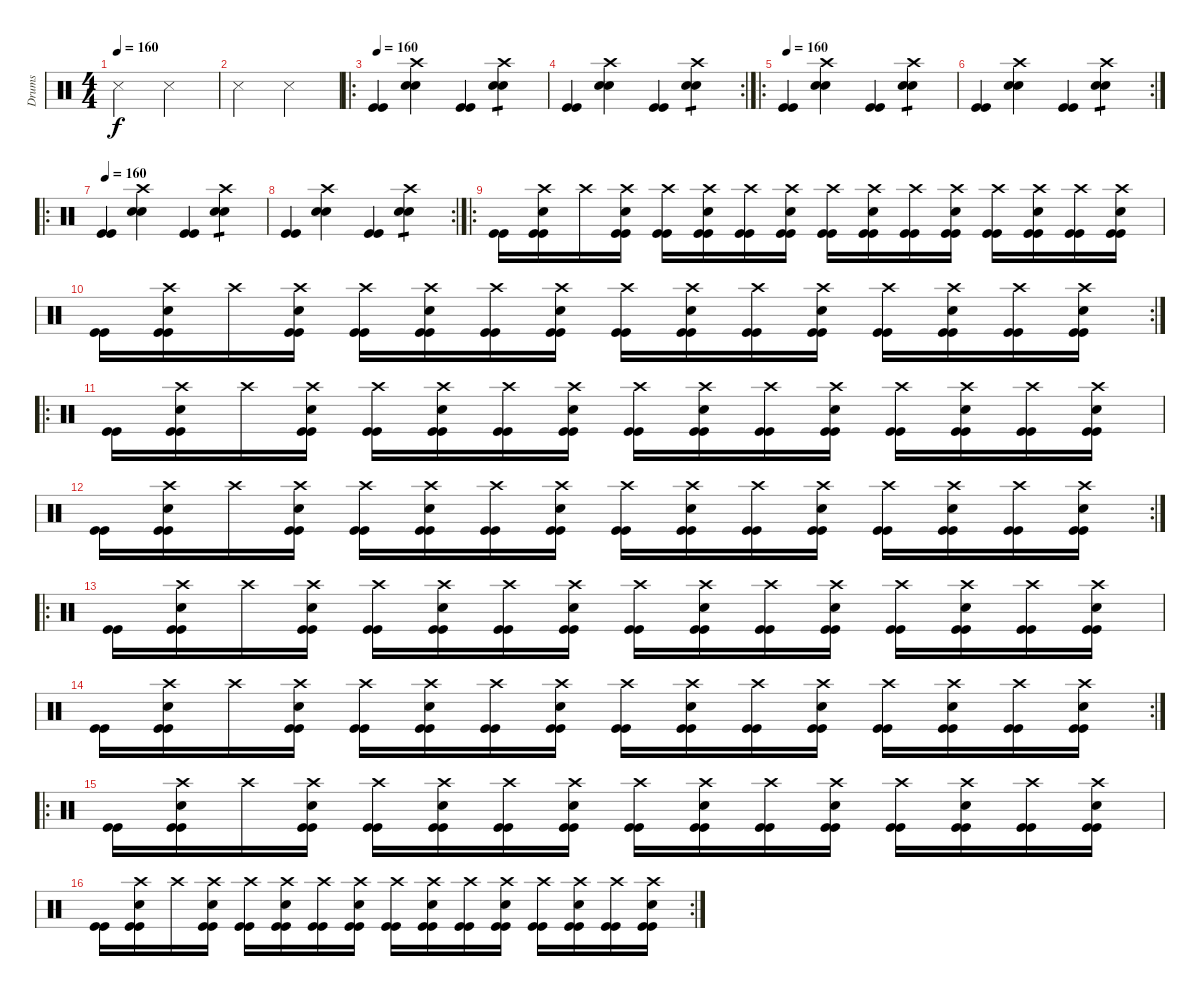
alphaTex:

\track ("Drums" "Drums") {instrument percussion}
\staff {score}
\articulation defaults
\ts (4 4)
\tempo 160
\tempo 300
\tempo 160
\clef neutral
\ks c "Snare (side stick) 3".2{dy f} "Snare (side stick) 3".2
|
"Snare (side stick) 3".2 "Snare (side stick) 3".2 |
\ro
\tempo 160
("Kick (hit)" "Kick (hit)").4 ("Crash high (hit)" "Snare (hit) 2" "Snare (hit) 2").4 ("Kick (hit)" "Kick (hit)").4 ("Crash high (hit)" "Snare (hit) 2" "Snare (hit) 2").4{tp 1} |
\rc 2
("Kick (hit)" "Kick (hit)").4 ("Crash high (hit)" "Snare (hit) 2" "Snare (hit) 2").4 ("Kick (hit)" "Kick (hit)").4 ("Crash high (hit)" "Snare (hit) 2" "Snare (hit) 2").4{tp 1} |
\ro
\tempo 160
("Kick (hit)" "Kick (hit)").4 ("Crash high (hit)" "Snare (hit) 2" "Snare (hit) 2").4 ("Kick (hit)" "Kick (hit)").4 ("Crash high (hit)" "Snare (hit) 2" "Snare (hit) 2").4{tp 1} |
\rc 2
("Kick (hit)" "Kick (hit)").4 ("Crash high (hit)" "Snare (hit) 2" "Snare (hit) 2").4 ("Kick (hit)" "Kick (hit)").4 ("Crash high (hit)" "Snare (hit) 2" "Snare (hit) 2").4{tp 1} |
\ro
\tempo 160
("Kick (hit)" "Kick (hit)").4 ("Crash high (hit)" "Snare (hit) 2" "Snare (hit) 2").4 ("Kick (hit)" "Kick (hit)").4 ("Crash high (hit)" "Snare (hit) 2" "Snare (hit) 2").4{tp 1} |
\rc 2
("Kick (hit)" "Kick (hit)").4 ("Crash high (hit)" "Snare (hit) 2" "Snare (hit) 2").4 ("Kick (hit)" "Kick (hit)").4 ("Crash high (hit)" "Snare (hit) 2" "Snare (hit) 2").4{tp 1} |
\ro
("Kick (hit)" "Kick (hit)").16 ("Crash high (hit)" "Snare (hit) 2" "Kick (hit)" "Kick (hit)").16 "Crash high (hit)".16 ("Crash high (hit)" "Snare (hit) 2" "Kick (hit)" "Kick (hit)").16 ("Crash high (hit)" "Kick (hit)" "Kick (hit)").16 ("Crash high (hit)" "Snare (hit) 2" "Kick (hit)" "Kick (hit)").16 ("Crash high (hit)" "Kick (hit)" "Kick (hit)").16 ("Crash high (hit)" "Snare (hit) 2" "Kick (hit)" "Kick (hit)").16 ("Crash high (hit)" "Kick (hit)" "Kick (hit)").16 ("Crash high (hit)" "Snare (hit) 2" "Kick (hit)" "Kick (hit)").16 ("Crash high (hit)" "Kick (hit)" "Kick (hit)").16 ("Crash high (hit)" "Snare (hit) 2" "Kick (hit)" "Kick (hit)").16 ("Crash high (hit)" "Kick (hit)" "Kick (hit)").16 ("Crash high (hit)" "Snare (hit) 2" "Kick (hit)" "Kick (hit)").16 ("Crash high (hit)" "Kick (hit)" "Kick (hit)").16 ("Crash high (hit)" "Snare (hit) 2" "Kick (hit)" "Kick (hit)").16 |
\rc 2
("Kick (hit)" "Kick (hit)").16 ("Crash high (hit)" "Snare (hit) 2" "Kick (hit)" "Kick (hit)").16 "Crash high (hit)".16 ("Crash high (hit)" "Snare (hit) 2" "Kick (hit)" "Kick (hit)").16 ("Crash high (hit)" "Kick (hit)" "Kick (hit)").16 ("Crash high (hit)" "Snare (hit) 2" "Kick (hit)" "Kick (hit)").16 ("Crash high (hit)" "Kick (hit)" "Kick (hit)").16 ("Crash high (hit)" "Snare (hit) 2" "Kick (hit)" "Kick (hit)").16 ("Crash high (hit)" "Kick (hit)" "Kick (hit)").16 ("Crash high (hit)" "Snare (hit) 2" "Kick (hit)" "Kick (hit)").16 ("Crash high (hit)" "Kick (hit)" "Kick (hit)").16 ("Crash high (hit)" "Snare (hit) 2" "Kick (hit)" "Kick (hit)").16 ("Crash high (hit)" "Kick (hit)" "Kick (hit)").16 ("Crash high (hit)" "Snare (hit) 2" "Kick (hit)" "Kick (hit)").16 ("Crash high (hit)" "Kick (hit)" "Kick (hit)").16 ("Crash high (hit)" "Snare (hit) 2" "Kick (hit)" "Kick (hit)").16 |
\ro
("Kick (hit)" "Kick (hit)").16 ("Crash high (hit)" "Snare (hit) 2" "Kick (hit)" "Kick (hit)").16 "Crash high (hit)".16 ("Crash high (hit)" "Snare (hit) 2" "Kick (hit)" "Kick (hit)").16 ("Crash high (hit)" "Kick (hit)" "Kick (hit)").16 ("Crash high (hit)" "Snare (hit) 2" "Kick (hit)" "Kick (hit)").16 ("Crash high (hit)" "Kick (hit)" "Kick (hit)").16 ("Crash high (hit)" "Snare (hit) 2" "Kick (hit)" "Kick (hit)").16 ("Crash high (hit)" "Kick (hit)" "Kick (hit)").16 ("Crash high (hit)" "Snare (hit) 2" "Kick (hit)" "Kick (hit)").16 ("Crash high (hit)" "Kick (hit)" "Kick (hit)").16 ("Crash high (hit)" "Snare (hit) 2" "Kick (hit)" "Kick (hit)").16 ("Crash high (hit)" "Kick (hit)" "Kick (hit)").16 ("Crash high (hit)" "Snare (hit) 2" "Kick (hit)" "Kick (hit)").16 ("Crash high (hit)" "Kick (hit)" "Kick (hit)").16 ("Crash high (hit)" "Snare (hit) 2" "Kick (hit)" "Kick (hit)").16 |
\rc 2
("Kick (hit)" "Kick (hit)").16 ("Crash high (hit)" "Snare (hit) 2" "Kick (hit)" "Kick (hit)").16 "Crash high (hit)".16 ("Crash high (hit)" "Snare (hit) 2" "Kick (hit)" "Kick (hit)").16 ("Crash high (hit)" "Kick (hit)" "Kick (hit)").16 ("Crash high (hit)" "Snare (hit) 2" "Kick (hit)" "Kick (hit)").16 ("Crash high (hit)" "Kick (hit)" "Kick (hit)").16 ("Crash high (hit)" "Snare (hit) 2" "Kick (hit)" "Kick (hit)").16 ("Crash high (hit)" "Kick (hit)" "Kick (hit)").16 ("Crash high (hit)" "Snare (hit) 2" "Kick (hit)" "Kick (hit)").16 ("Crash high (hit)" "Kick (hit)" "Kick (hit)").16 ("Crash high (hit)" "Snare (hit) 2" "Kick (hit)" "Kick (hit)").16 ("Crash high (hit)" "Kick (hit)" "Kick (hit)").16 ("Crash high (hit)" "Snare (hit) 2" "Kick (hit)" "Kick (hit)").16 ("Crash high (hit)" "Kick (hit)" "Kick (hit)").16 ("Crash high (hit)" "Snare (hit) 2" "Kick (hit)" "Kick (hit)").16 |
\ro
("Kick (hit)" "Kick (hit)").16 ("Crash high (hit)" "Snare (hit) 2" "Kick (hit)" "Kick (hit)").16 "Crash high (hit)".16 ("Crash high (hit)" "Snare (hit) 2" "Kick (hit)" "Kick (hit)").16 ("Crash high (hit)" "Kick (hit)" "Kick (hit)").16 ("Crash high (hit)" "Snare (hit) 2" "Kick (hit)" "Kick (hit)").16 ("Crash high (hit)" "Kick (hit)" "Kick (hit)").16 ("Crash high (hit)" "Snare (hit) 2" "Kick (hit)" "Kick (hit)").16 ("Crash high (hit)" "Kick (hit)" "Kick (hit)").16 ("Crash high (hit)" "Snare (hit) 2" "Kick (hit)" "Kick (hit)").16 ("Crash high (hit)" "Kick (hit)" "Kick (hit)").16 ("Crash high (hit)" "Snare (hit) 2" "Kick (hit)" "Kick (hit)").16 ("Crash high (hit)" "Kick (hit)" "Kick (hit)").16 ("Crash high (hit)" "Snare (hit) 2" "Kick (hit)" "Kick (hit)").16 ("Crash high (hit)" "Kick (hit)" "Kick (hit)").16 ("Crash high (hit)" "Snare (hit) 2" "Kick (hit)" "Kick (hit)").16 |
\rc 2
("Kick (hit)" "Kick (hit)").16 ("Crash high (hit)" "Snare (hit) 2" "Kick (hit)" "Kick (hit)").16 "Crash high (hit)".16 ("Crash high (hit)" "Snare (hit) 2" "Kick (hit)" "Kick (hit)").16 ("Crash high (hit)" "Kick (hit)" "Kick (hit)").16 ("Crash high (hit)" "Snare (hit) 2" "Kick (hit)" "Kick (hit)").16 ("Crash high (hit)" "Kick (hit)" "Kick (hit)").16 ("Crash high (hit)" "Snare (hit) 2" "Kick (hit)" "Kick (hit)").16 ("Crash high (hit)" "Kick (hit)" "Kick (hit)").16 ("Crash high (hit)" "Snare (hit) 2" "Kick (hit)" "Kick (hit)").16 ("Crash high (hit)" "Kick (hit)" "Kick (hit)").16 ("Crash high (hit)" "Snare (hit) 2" "Kick (hit)" "Kick (hit)").16 ("Crash high (hit)" "Kick (hit)" "Kick (hit)").16 ("Crash high (hit)" "Snare (hit) 2" "Kick (hit)" "Kick (hit)").16 ("Crash high (hit)" "Kick (hit)" "Kick (hit)").16 ("Crash high (hit)" "Snare (hit) 2" "Kick (hit)" "Kick (hit)").16 |
\ro
("Kick (hit)" "Kick (hit)").16 ("Crash high (hit)" "Snare (hit) 2" "Kick (hit)" "Kick (hit)").16 "Crash high (hit)".16 ("Crash high (hit)" "Snare (hit) 2" "Kick (hit)" "Kick (hit)").16 ("Crash high (hit)" "Kick (hit)" "Kick (hit)").16 ("Crash high (hit)" "Snare (hit) 2" "Kick (hit)" "Kick (hit)").16 ("Crash high (hit)" "Kick (hit)" "Kick (hit)").16 ("Crash high (hit)" "Snare (hit) 2" "Kick (hit)" "Kick (hit)").16 ("Crash high (hit)" "Kick (hit)" "Kick (hit)").16 ("Crash high (hit)" "Snare (hit) 2" "Kick (hit)" "Kick (hit)").16 ("Crash high (hit)" "Kick (hit)" "Kick (hit)").16 ("Crash high (hit)" "Snare (hit) 2" "Kick (hit)" "Kick (hit)").16 ("Crash high (hit)" "Kick (hit)" "Kick (hit)").16 ("Crash high (hit)" "Snare (hit) 2" "Kick (hit)" "Kick (hit)").16 ("Crash high (hit)" "Kick (hit)" "Kick (hit)").16 ("Crash high (hit)" "Snare (hit) 2" "Kick (hit)" "Kick (hit)").16 |
\rc 2
("Kick (hit)" "Kick (hit)").16 ("Crash high (hit)" "Snare (hit) 2" "Kick (hit)" "Kick (hit)").16 "Crash high (hit)".16 ("Crash high (hit)" "Snare (hit) 2" "Kick (hit)" "Kick (hit)").16 ("Crash high (hit)" "Kick (hit)" "Kick (hit)").16 ("Crash high (hit)" "Snare (hit) 2" "Kick (hit)" "Kick (hit)").16 ("Crash high (hit)" "Kick (hit)" "Kick (hit)").16 ("Crash high (hit)" "Snare (hit) 2" "Kick (hit)" "Kick (hit)").16 ("Crash high (hit)" "Kick (hit)" "Kick (hit)").16 ("Crash high (hit)" "Snare (hit) 2" "Kick (hit)" "Kick (hit)").16 ("Crash high (hit)" "Kick (hit)" "Kick (hit)").16 ("Crash high (hit)" "Snare (hit) 2" "Kick (hit)" "Kick (hit)").16 ("Crash high (hit)" "Kick (hit)" "Kick (hit)").16 ("Crash high (hit)" "Snare (hit) 2" "Kick (hit)" "Kick (hit)").16 ("Crash high (hit)" "Kick (hit)" "Kick (hit)").16 ("Crash high (hit)" "Snare (hit) 2" "Kick (hit)" "Kick (hit)").16
